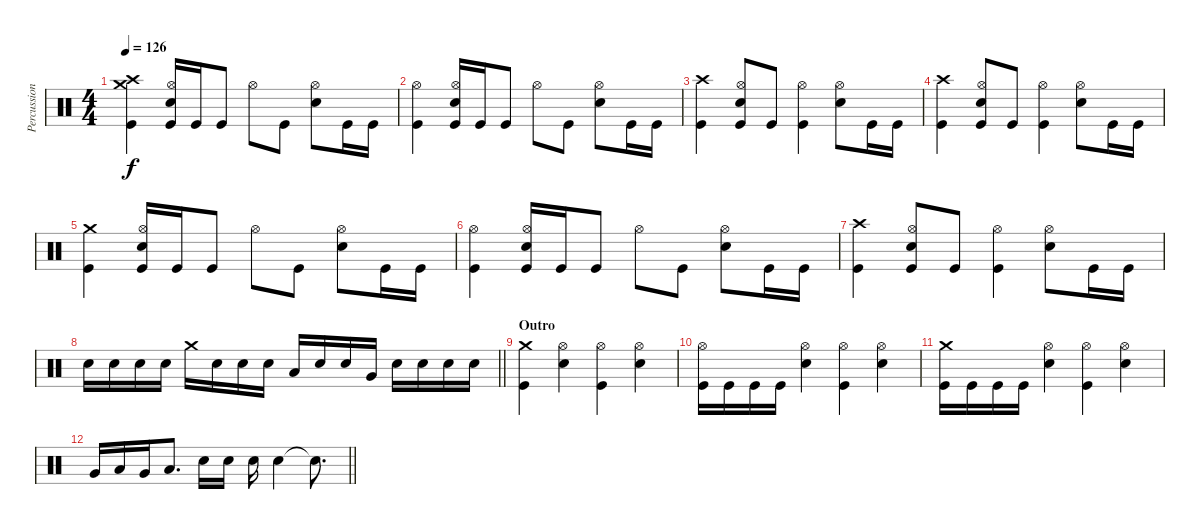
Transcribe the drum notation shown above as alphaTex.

\track ("Percussion" "Percussion") {instrument percussion}
\staff {score}
\articulation defaults
\ts (4 4)
\tempo 126
\clef neutral
\ks c
("Crash high (hit)" "Crash medium (hit)" "Kick (hit)").4{dy f} ("Hi-Hat (open)" "Electric Snare (hit)" "Kick (hit)").16 "Kick (hit)".16 "Kick (hit)".8 "Hi-Hat (open)".8 "Kick (hit)".8 ("Hi-Hat (open)" "Electric Snare (hit)").8 "Kick (hit)".16 "Kick (hit)".16 |
("Hi-Hat (open)" "Kick (hit)").4 ("Hi-Hat (open)" "Electric Snare (hit)" "Kick (hit)").16 "Kick (hit)".16 "Kick (hit)".8 "Hi-Hat (open)".8 "Kick (hit)".8 ("Hi-Hat (open)" "Electric Snare (hit)").8 "Kick (hit)".16 "Kick (hit)".16 |
("Crash high (hit)" "Kick (hit)").4 ("Hi-Hat (open)" "Electric Snare (hit)" "Kick (hit)").8 "Kick (hit)".8 ("Hi-Hat (open)" "Kick (hit)").4 ("Hi-Hat (open)" "Electric Snare (hit)").8 "Kick (hit)".16 "Kick (hit)".16 |
("Crash high (hit)" "Kick (hit)").4 ("Hi-Hat (open)" "Electric Snare (hit)" "Kick (hit)").8 "Kick (hit)".8 ("Hi-Hat (open)" "Kick (hit)").4 ("Hi-Hat (open)" "Electric Snare (hit)").8 "Kick (hit)".16 "Kick (hit)".16 |
("Crash medium (hit)" "Kick (hit)").4 ("Hi-Hat (open)" "Electric Snare (hit)" "Kick (hit)").16 "Kick (hit)".16 "Kick (hit)".8 "Hi-Hat (open)".8 "Kick (hit)".8 ("Hi-Hat (open)" "Electric Snare (hit)").8 "Kick (hit)".16 "Kick (hit)".16 |
("Hi-Hat (open)" "Kick (hit)").4 ("Hi-Hat (open)" "Electric Snare (hit)" "Kick (hit)").16 "Kick (hit)".16 "Kick (hit)".8 "Hi-Hat (open)".8 "Kick (hit)".8 ("Hi-Hat (open)" "Electric Snare (hit)").8 "Kick (hit)".16 "Kick (hit)".16 |
("Crash high (hit)" "Kick (hit)").4 ("Hi-Hat (open)" "Electric Snare (hit)" "Kick (hit)").8 "Kick (hit)".8 ("Hi-Hat (open)" "Kick (hit)").4 ("Hi-Hat (open)" "Electric Snare (hit)").8 "Kick (hit)".16 "Kick (hit)".16 |
\barLineRight lightlight "Electric Snare (hit)".16 "Electric Snare (hit)".16 "Electric Snare (hit)".16 "Electric Snare (hit)".16 "Crash medium (hit)".16 "Electric Snare (hit)".16 "Electric Snare (hit)".16 "Electric Snare (hit)".16 "Low Tom (hit)".16 "Electric Snare (hit)".16 "Electric Snare (hit)".16 "Very Low Tom (hit)".16 "Electric Snare (hit)".16 "Electric Snare (hit)".16 "Electric Snare (hit)".16 "Electric Snare (hit)".16
|
\section ("" "Outro")
("Crash medium (hit)" "Kick (hit)").4 ("Hi-Hat (open)" "Electric Snare (hit)").4 ("Hi-Hat (open)" "Kick (hit)").4 ("Hi-Hat (open)" "Electric Snare (hit)").4 |
("Hi-Hat (open)" "Kick (hit)").16 "Kick (hit)".16 "Kick (hit)".16 "Kick (hit)".16 ("Hi-Hat (open)" "Electric Snare (hit)").4 ("Hi-Hat (open)" "Kick (hit)").4 ("Hi-Hat (open)" "Electric Snare (hit)").4 |
("Crash medium (hit)" "Kick (hit)").16 "Kick (hit)".16 "Kick (hit)".16 "Kick (hit)".16 ("Hi-Hat (open)" "Electric Snare (hit)").4 ("Hi-Hat (open)" "Kick (hit)").4 ("Hi-Hat (open)" "Electric Snare (hit)").4 |
\barLineRight lightlight "Very Low Tom (hit)".16 "Low Tom (hit)".16 "Very Low Tom (hit)".16 "Low Floor Tom (hit)".8{d} "Electric Snare (hit)".16 "Electric Snare (hit)".16 "Electric Snare (hit)".16 "Electric Snare (hit)".4 "Snare (hit)"{t}.8{d}
